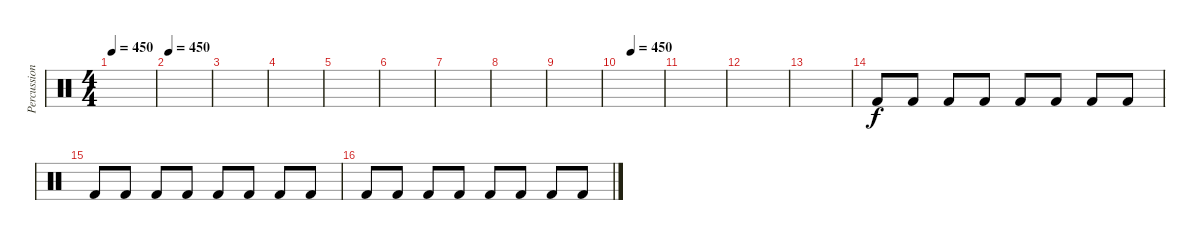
\track ("Percussions3" "Percussion") {instrument percussion}
\staff {score}
\articulation defaults
\ts (4 4)
\tempo 450
\clef neutral
\ks c
|
\tempo 450
|
|
|
|
|
|
|
|
\tempo (450 0.25)
|
|
|
|
"Kick (hit) 2".8 "Kick (hit) 2".8 "Kick (hit) 2".8 "Kick (hit) 2".8 "Kick (hit) 2".8 "Kick (hit) 2".8 "Kick (hit) 2".8 "Kick (hit) 2".8 |
"Kick (hit) 2".8 "Kick (hit) 2".8 "Kick (hit) 2".8 "Kick (hit) 2".8 "Kick (hit) 2".8 "Kick (hit) 2".8 "Kick (hit) 2".8 "Kick (hit) 2".8 |
"Kick (hit) 2".8 "Kick (hit) 2".8 "Kick (hit) 2".8 "Kick (hit) 2".8 "Kick (hit) 2".8 "Kick (hit) 2".8 "Kick (hit) 2".8 "Kick (hit) 2".8
